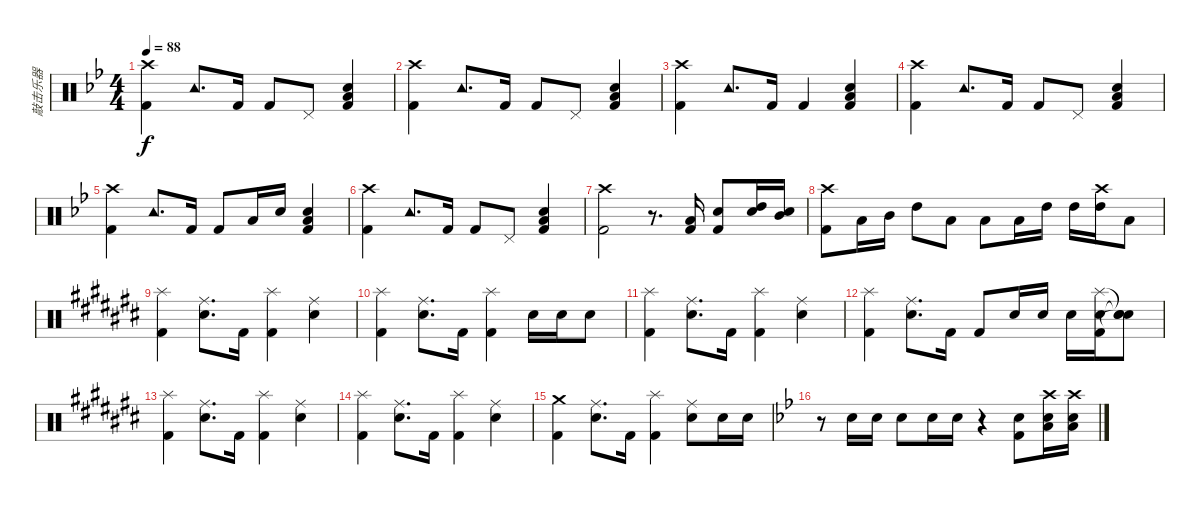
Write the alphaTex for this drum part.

\track ("敲击乐器" "敲击乐器") {instrument percussion}
\staff {score}
\articulation defaults
\ts (4 4)
\tempo 88
\clef neutral
\ks bb
("Crash high (hit)" "Kick (hit) 2").4{dy f} "Tambourine (hit)".8{d} "Kick (hit) 2".16 "Kick (hit) 2".8 "Pedal Hi-Hat (hit)".8 ("Snare (hit) 2" "Low Floor Tom (hit)" "Kick (hit) 2").4 |
("Crash high (hit)" "Kick (hit) 2").4 "Tambourine (hit)".8{d} "Kick (hit) 2".16 "Kick (hit) 2".8 "Pedal Hi-Hat (hit)".8 ("Snare (hit) 2" "Low Floor Tom (hit)" "Kick (hit) 2").4 |
("Crash high (hit)" "Kick (hit) 2").4 "Tambourine (hit)".8{d} "Kick (hit) 2".16 "Kick (hit) 2".4 ("Snare (hit) 2" "Low Floor Tom (hit)" "Kick (hit) 2").4 |
("Crash high (hit)" "Kick (hit) 2").4 "Tambourine (hit)".8{d} "Kick (hit) 2".16 "Kick (hit) 2".8 "Pedal Hi-Hat (hit)".8 ("Snare (hit) 2" "Low Floor Tom (hit)" "Kick (hit) 2").4 |
("Crash high (hit)" "Kick (hit) 2").4 "Tambourine (hit)".8{d} "Kick (hit) 2".16 "Kick (hit) 2".8 "Low Tom (hit)".16 "Snare (hit) 2".16 ("Snare (hit) 2" "Low Floor Tom (hit)" "Kick (hit) 2").4 |
("Crash high (hit)" "Kick (hit) 2").4 "Tambourine (hit)".8{d} "Kick (hit) 2".16 "Kick (hit) 2".8 "Pedal Hi-Hat (hit)".8 ("Snare (hit) 2" "Low Floor Tom (hit)" "Kick (hit) 2").4 |
("Crash high (hit)" "Kick (hit) 2").2 r.8{d} ("Low Tom (hit)" "Kick (hit) 2").16 ("Snare (hit) 2" "Kick (hit) 2").8 ("High Tom (hit)" "Snare (hit) 2").16 ("Mid Tom (hit)" "Snare (hit) 2").16 |
("Crash high (hit)" "Kick (hit) 2").8 "Low Tom (hit)".16 "Mid Tom (hit)".16 "High Tom (hit)".8 "Low Tom (hit)".8 "Low Tom (hit)".8 "Low Tom (hit)".16 "High Tom (hit)".16 "High Tom (hit)".16 ("Crash high (hit)" "High Tom (hit)").16 "Low Tom (hit)".8 |
\ks c#
("Splash (hit)" "Kick (hit) 2").4 ("Ride (middle)" "Snare (hit) 2").8{d} "Kick (hit) 2".16 ("Splash (hit)" "Kick (hit) 2").4 ("Ride (middle)" "Snare (hit) 2").4 |
("Splash (hit)" "Kick (hit) 2").4 ("Ride (middle)" "Snare (hit) 2").8{d} "Kick (hit) 2".16 ("Splash (hit)" "Kick (hit) 2").4 "Snare (hit) 2".16 "Snare (hit) 2".16 "Snare (hit) 2".8 |
("Splash (hit)" "Kick (hit) 2").4 ("Ride (middle)" "Snare (hit) 2").8{d} "Kick (hit) 2".16 ("Splash (hit)" "Kick (hit) 2").4 ("Ride (middle)" "Snare (hit) 2").4 |
("Splash (hit)" "Kick (hit) 2").4 ("Ride (middle)" "Snare (hit) 2").8{d} "Kick (hit) 2".16 "Kick (hit) 2".8 "Snare (hit) 2".16 "Snare (hit) 2".16 "Snare (hit) 2".16 ("Splash (hit)" "Snare (hit) 2" "Kick (hit) 2").16 ("Snare (hit)"{t} "Snare (hit)"{t} "Snare (hit)"{t}).8 |
("Splash (hit)" "Kick (hit) 2").4 ("Ride (middle)" "Snare (hit) 2").8{d} "Kick (hit) 2".16 ("Splash (hit)" "Kick (hit) 2").4 ("Ride (middle)" "Snare (hit) 2").4 |
("Splash (hit)" "Kick (hit) 2").4 ("Ride (middle)" "Snare (hit) 2").8{d} "Kick (hit) 2".16 ("Splash (hit)" "Kick (hit) 2").4 ("Ride (middle)" "Snare (hit) 2").4 |
("Crash medium (hit)" "Kick (hit) 2").4 ("Ride (middle)" "Snare (hit) 2").8{d} "Kick (hit) 2".16 ("Splash (hit)" "Kick (hit) 2").4 ("Ride (middle)" "Snare (hit) 2").8 "Snare (hit) 2".16 "Snare (hit) 2".16 |
\ks bb
r.8 "Snare (hit) 2".16 "Snare (hit) 2".16 "Snare (hit) 2".8 "Snare (hit) 2".16 "Snare (hit) 2".16 r.4 ("Snare (hit) 2" "Kick (hit) 2").8 ("Crash high (hit)" "Snare (hit) 2" "Low Floor Tom (hit)").16 ("Crash high (hit)" "Snare (hit) 2" "Low Floor Tom (hit)").16
